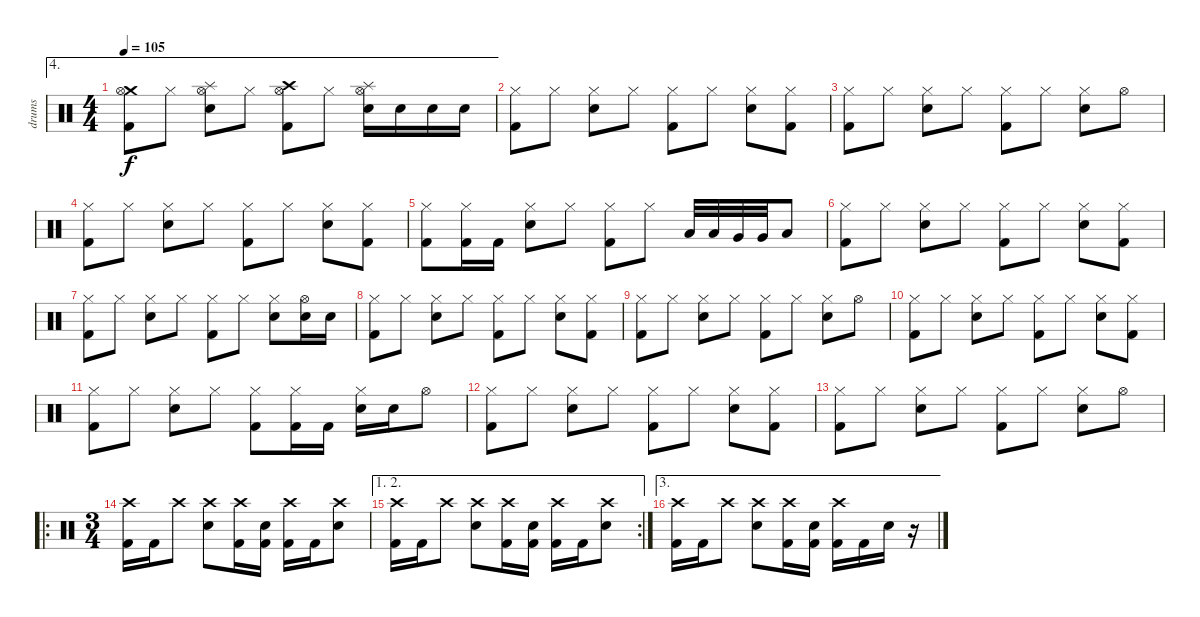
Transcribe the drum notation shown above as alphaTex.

\track ("drums" "drums") {instrument percussion}
\staff {score}
\articulation defaults
\ae 4
\ts (4 4)
\tempo 105
\clef neutral
\ks c
("Crash medium (hit)" "Hi-Hat (open)" "Kick (hit) 2").8{dy f} "Hi-Hat (closed)".8 ("Splash (hit)" "Hi-Hat (open)" "Electric Snare (hit)").8 "Hi-Hat (closed)".8 ("Crash high (hit)" "Hi-Hat (open)" "Kick (hit) 2").8 "Hi-Hat (closed)".8 ("Splash (hit)" "Hi-Hat (open)" "Electric Snare (hit)").16 "Electric Snare (hit)".16 "Electric Snare (hit)".16 "Electric Snare (hit)".16 |
("Hi-Hat (closed)" "Kick (hit) 2").8 "Hi-Hat (closed)".8 ("Hi-Hat (closed)" "Electric Snare (hit)").8 "Hi-Hat (closed)".8 ("Hi-Hat (closed)" "Kick (hit) 2").8 "Hi-Hat (closed)".8 ("Hi-Hat (closed)" "Electric Snare (hit)").8 ("Hi-Hat (closed)" "Kick (hit) 2").8 |
("Hi-Hat (closed)" "Kick (hit) 2").8 "Hi-Hat (closed)".8 ("Hi-Hat (closed)" "Electric Snare (hit)").8 "Hi-Hat (closed)".8 ("Hi-Hat (closed)" "Kick (hit) 2").8 "Hi-Hat (closed)".8 ("Hi-Hat (closed)" "Electric Snare (hit)").8 "Hi-Hat (open)".8 |
("Hi-Hat (closed)" "Kick (hit) 2").8 "Hi-Hat (closed)".8 ("Hi-Hat (closed)" "Electric Snare (hit)").8 "Hi-Hat (closed)".8 ("Hi-Hat (closed)" "Kick (hit) 2").8 "Hi-Hat (closed)".8 ("Hi-Hat (closed)" "Electric Snare (hit)").8 ("Hi-Hat (closed)" "Kick (hit) 2").8 |
("Hi-Hat (closed)" "Kick (hit) 2").8 ("Hi-Hat (closed)" "Kick (hit) 2").16 "Kick (hit) 2".16 ("Hi-Hat (closed)" "Electric Snare (hit)").8 "Hi-Hat (closed)".8 ("Hi-Hat (closed)" "Kick (hit) 2").8 "Hi-Hat (closed)".8 "Low Floor Tom (hit)".32 "Low Floor Tom (hit)".32 "Very Low Tom (hit)".32 "Very Low Tom (hit)".32 "Low Tom (hit)".8 |
("Hi-Hat (closed)" "Kick (hit) 2").8 "Hi-Hat (closed)".8 ("Hi-Hat (closed)" "Electric Snare (hit)").8 "Hi-Hat (closed)".8 ("Hi-Hat (closed)" "Kick (hit) 2").8 "Hi-Hat (closed)".8 ("Hi-Hat (closed)" "Electric Snare (hit)").8 ("Hi-Hat (closed)" "Kick (hit) 2").8 |
("Hi-Hat (closed)" "Kick (hit) 2").8 "Hi-Hat (closed)".8 ("Hi-Hat (closed)" "Electric Snare (hit)").8 "Hi-Hat (closed)".8 ("Hi-Hat (closed)" "Kick (hit) 2").8 "Hi-Hat (closed)".8 ("Hi-Hat (closed)" "Electric Snare (hit)").8 ("Hi-Hat (open)" "Electric Snare (hit)").16 "Electric Snare (hit)".16 |
("Hi-Hat (closed)" "Kick (hit) 2").8 "Hi-Hat (closed)".8 ("Hi-Hat (closed)" "Electric Snare (hit)").8 "Hi-Hat (closed)".8 ("Hi-Hat (closed)" "Kick (hit) 2").8 "Hi-Hat (closed)".8 ("Hi-Hat (closed)" "Electric Snare (hit)").8 ("Hi-Hat (closed)" "Kick (hit) 2").8 |
("Hi-Hat (closed)" "Kick (hit) 2").8 "Hi-Hat (closed)".8 ("Hi-Hat (closed)" "Electric Snare (hit)").8 "Hi-Hat (closed)".8 ("Hi-Hat (closed)" "Kick (hit) 2").8 "Hi-Hat (closed)".8 ("Hi-Hat (closed)" "Electric Snare (hit)").8 "Hi-Hat (open)".8 |
("Hi-Hat (closed)" "Kick (hit) 2").8 "Hi-Hat (closed)".8 ("Hi-Hat (closed)" "Electric Snare (hit)").8 "Hi-Hat (closed)".8 ("Hi-Hat (closed)" "Kick (hit) 2").8 "Hi-Hat (closed)".8 ("Hi-Hat (closed)" "Electric Snare (hit)").8 ("Hi-Hat (closed)" "Kick (hit) 2").8 |
("Hi-Hat (closed)" "Kick (hit) 2").8 "Hi-Hat (closed)".8 ("Hi-Hat (closed)" "Electric Snare (hit)").8 "Hi-Hat (closed)".8 ("Hi-Hat (closed)" "Kick (hit) 2").8 ("Hi-Hat (closed)" "Kick (hit) 2").16 "Kick (hit) 2".16 ("Hi-Hat (closed)" "Electric Snare (hit)").16 "Electric Snare (hit)".16 "Hi-Hat (open)".8 |
("Hi-Hat (closed)" "Kick (hit) 2").8 "Hi-Hat (closed)".8 ("Hi-Hat (closed)" "Electric Snare (hit)").8 "Hi-Hat (closed)".8 ("Hi-Hat (closed)" "Kick (hit) 2").8 "Hi-Hat (closed)".8 ("Hi-Hat (closed)" "Electric Snare (hit)").8 ("Hi-Hat (closed)" "Kick (hit) 2").8 |
("Hi-Hat (closed)" "Kick (hit) 2").8 "Hi-Hat (closed)".8 ("Hi-Hat (closed)" "Electric Snare (hit)").8 "Hi-Hat (closed)".8 ("Hi-Hat (closed)" "Kick (hit) 2").8 "Hi-Hat (closed)".8 ("Hi-Hat (closed)" "Electric Snare (hit)").8 "Hi-Hat (open)".8 |
\ro
\ts (3 4)
("Crash high (hit)" "Kick (hit) 2").16 "Kick (hit) 2".16 "Crash high (hit)".8 ("Crash high (hit)" "Electric Snare (hit)").8 ("Crash high (hit)" "Kick (hit) 2").16 ("Electric Snare (hit)" "Kick (hit) 2").16 ("Crash high (hit)" "Kick (hit) 2").16 "Kick (hit) 2".16 ("Crash high (hit)" "Electric Snare (hit)").8 |
\ae (1 2)
\rc 2
("Crash high (hit)" "Kick (hit) 2").16 "Kick (hit) 2".16 "Crash high (hit)".8 ("Crash high (hit)" "Electric Snare (hit)").8 ("Crash high (hit)" "Kick (hit) 2").16 ("Electric Snare (hit)" "Kick (hit) 2").16 ("Crash high (hit)" "Kick (hit) 2").16 "Kick (hit) 2".16 ("Crash high (hit)" "Electric Snare (hit)").8 |
\ae 3
("Crash high (hit)" "Kick (hit) 2").16 "Kick (hit) 2".16 "Crash high (hit)".8 ("Crash high (hit)" "Electric Snare (hit)").8 ("Crash high (hit)" "Kick (hit) 2").16 ("Electric Snare (hit)" "Kick (hit) 2").16 ("Crash high (hit)" "Kick (hit) 2").16 "Kick (hit) 2".16 "Electric Snare (hit)".16 r.16
